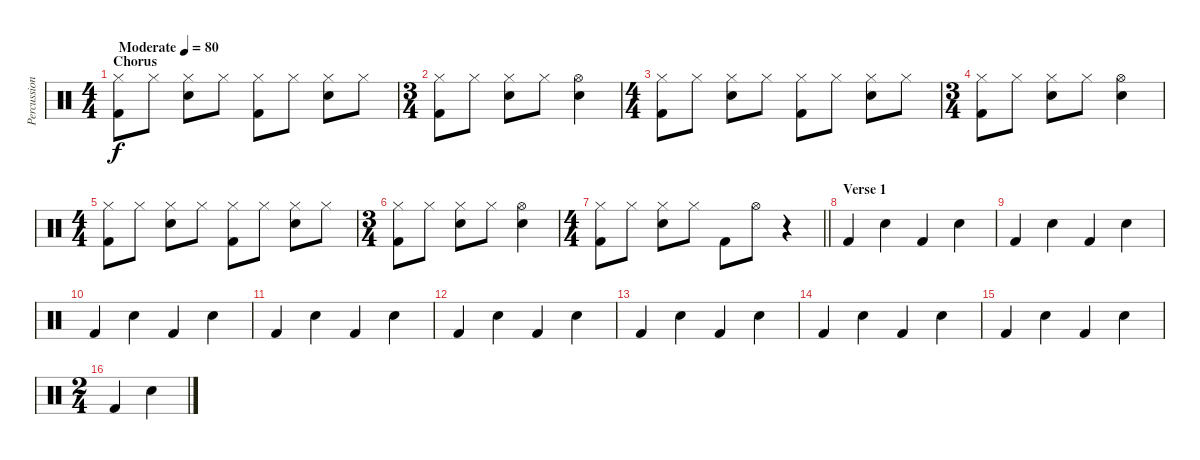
\track ("Percussion" "Percussion") {instrument percussion}
\staff {score}
\articulation defaults
\ts (4 4)
\section ("" "Chorus")
\tempo (80 "Moderate")
\clef neutral
\ks c
("Hi-Hat (closed)" "Kick (hit) 2").8{dy f} "Hi-Hat (closed)".8 ("Hi-Hat (closed)" "Snare (hit) 2").8 "Hi-Hat (closed)".8 ("Hi-Hat (closed)" "Kick (hit) 2").8 "Hi-Hat (closed)".8 ("Hi-Hat (closed)" "Snare (hit) 2").8 "Hi-Hat (closed)".8 |
\ts (3 4)
("Hi-Hat (closed)" "Kick (hit) 2").8 "Hi-Hat (closed)".8 ("Hi-Hat (closed)" "Snare (hit) 2").8 "Hi-Hat (closed)".8 ("Hi-Hat (open)" "Snare (hit) 2").4 |
\ts (4 4)
("Hi-Hat (closed)" "Kick (hit) 2").8 "Hi-Hat (closed)".8 ("Hi-Hat (closed)" "Snare (hit) 2").8 "Hi-Hat (closed)".8 ("Hi-Hat (closed)" "Kick (hit) 2").8 "Hi-Hat (closed)".8 ("Hi-Hat (closed)" "Snare (hit) 2").8 "Hi-Hat (closed)".8 |
\ts (3 4)
("Hi-Hat (closed)" "Kick (hit) 2").8 "Hi-Hat (closed)".8 ("Hi-Hat (closed)" "Snare (hit) 2").8 "Hi-Hat (closed)".8 ("Hi-Hat (open)" "Snare (hit) 2").4 |
\ts (4 4)
("Hi-Hat (closed)" "Kick (hit) 2").8 "Hi-Hat (closed)".8 ("Hi-Hat (closed)" "Snare (hit) 2").8 "Hi-Hat (closed)".8 ("Hi-Hat (closed)" "Kick (hit) 2").8 "Hi-Hat (closed)".8 ("Hi-Hat (closed)" "Snare (hit) 2").8 "Hi-Hat (closed)".8 |
\ts (3 4)
("Hi-Hat (closed)" "Kick (hit) 2").8 "Hi-Hat (closed)".8 ("Hi-Hat (closed)" "Snare (hit) 2").8 "Hi-Hat (closed)".8 ("Hi-Hat (open)" "Snare (hit) 2").4 |
\ts (4 4)
\barLineRight lightlight
("Hi-Hat (closed)" "Kick (hit) 2").8 "Hi-Hat (closed)".8 ("Hi-Hat (closed)" "Snare (hit) 2").8 "Hi-Hat (closed)".8 "Kick (hit) 2".8 "Hi-Hat (open)".8 r.4 |
\section ("" "Verse 1")
"Kick (hit) 2".4 "Snare (hit) 2".4 "Kick (hit) 2".4 "Snare (hit) 2".4 |
"Kick (hit) 2".4 "Snare (hit) 2".4 "Kick (hit) 2".4 "Snare (hit) 2".4 |
"Kick (hit) 2".4 "Snare (hit) 2".4 "Kick (hit) 2".4 "Snare (hit) 2".4 |
"Kick (hit) 2".4 "Snare (hit) 2".4 "Kick (hit) 2".4 "Snare (hit) 2".4 |
"Kick (hit) 2".4 "Snare (hit) 2".4 "Kick (hit) 2".4 "Snare (hit) 2".4 |
"Kick (hit) 2".4 "Snare (hit) 2".4 "Kick (hit) 2".4 "Snare (hit) 2".4 |
"Kick (hit) 2".4 "Snare (hit) 2".4 "Kick (hit) 2".4 "Snare (hit) 2".4 |
"Kick (hit) 2".4 "Snare (hit) 2".4 "Kick (hit) 2".4 "Snare (hit) 2".4 |
\ts (2 4)
"Kick (hit) 2".4 "Snare (hit) 2".4
